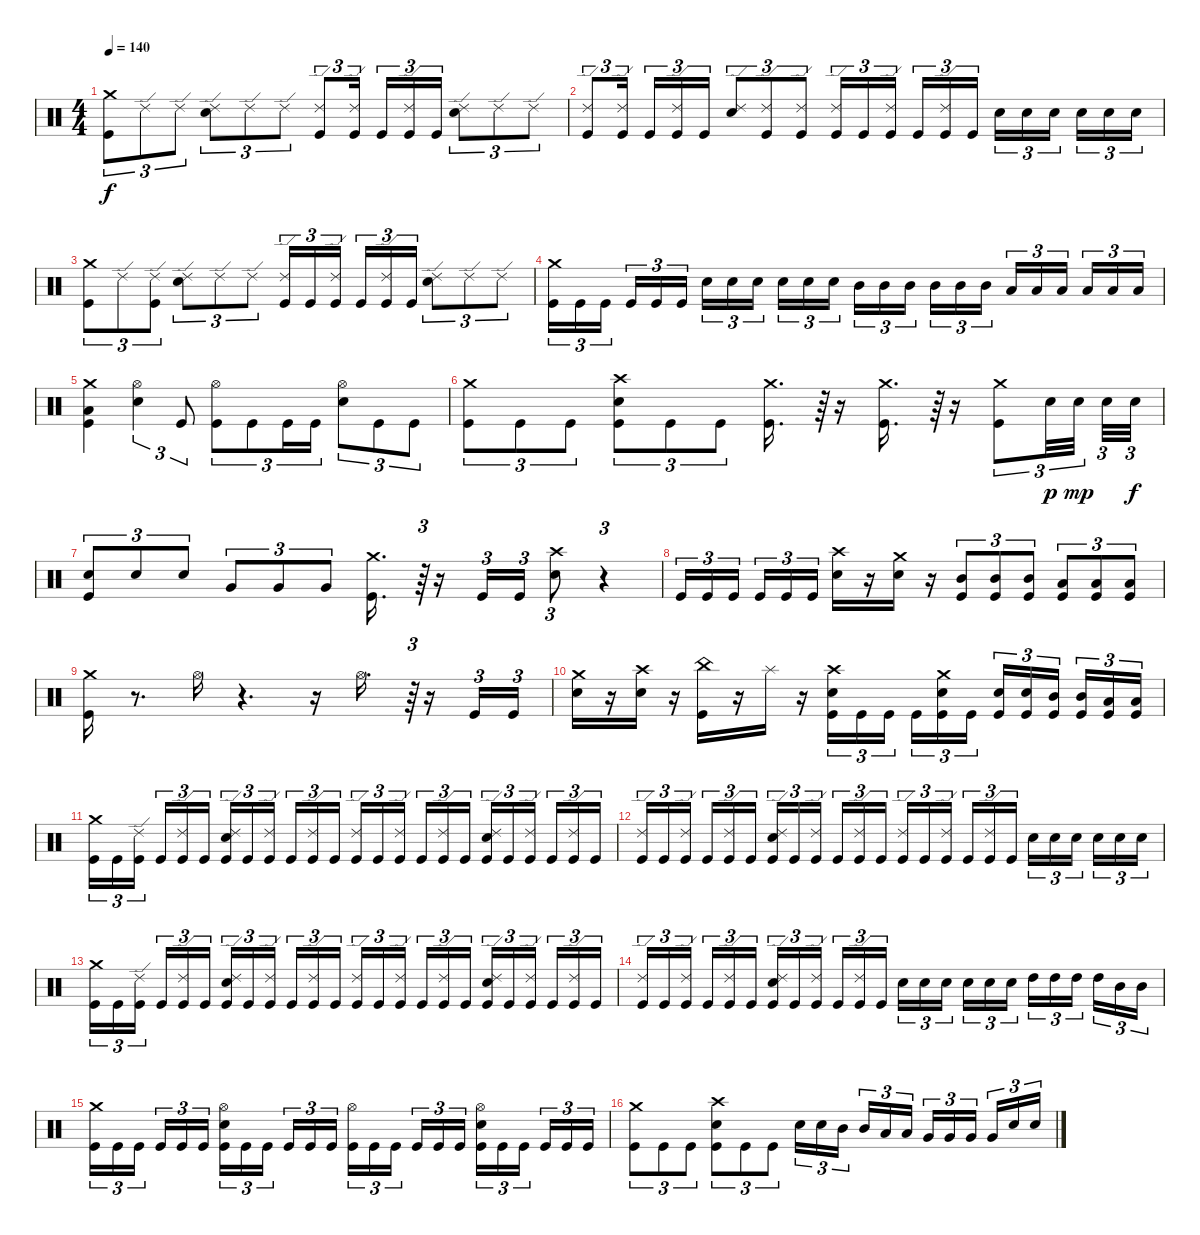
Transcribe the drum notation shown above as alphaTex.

\track "" {instrument percussion}
\staff {score}
\articulation defaults
\ts (4 4)
\tempo 140
\clef neutral
\ks c
("Crash medium (hit)" "Kick (hit)").8{tu (3 2) dy f} "Ride (edge) 2".8{tu (3 2)} "Ride (edge) 2".8{tu (3 2)} ("Snare (hit) 2" "Ride (edge) 2").8{tu (3 2)} "Ride (edge) 2".8{tu (3 2)} "Ride (edge) 2".8{tu (3 2)} ("Ride (edge) 2" "Kick (hit)").8{tu (3 2)} ("Ride (edge) 2" "Kick (hit)").16{tu (3 2) beam splitsecondary} "Kick (hit)".16{tu (3 2)} ("Ride (edge) 2" "Kick (hit)").16{tu (3 2)} "Kick (hit)".16{tu (3 2)} ("Ride (edge) 2" "Snare (hit) 2").8{tu (3 2)} "Ride (edge) 2".8{tu (3 2)} "Ride (edge) 2".8{tu (3 2)} |
("Kick (hit)" "Ride (edge) 2").8{tu (3 2)} ("Kick (hit)" "Ride (edge) 2").16{tu (3 2) beam splitsecondary} "Kick (hit)".16{tu (3 2)} ("Kick (hit)" "Ride (edge) 2").16{tu (3 2)} "Kick (hit)".16{tu (3 2)} ("Snare (hit) 2" "Ride (edge) 2").8{tu (3 2)} ("Kick (hit)" "Ride (edge) 2").8{tu (3 2)} ("Kick (hit)" "Ride (edge) 2").8{tu (3 2)} ("Kick (hit)" "Ride (edge) 2").16{tu (3 2)} "Kick (hit)".16{tu (3 2)} ("Kick (hit)" "Ride (edge) 2").16{tu (3 2) beam splitsecondary} "Kick (hit)".16{tu (3 2)} ("Kick (hit)" "Ride (edge) 2").16{tu (3 2)} "Kick (hit)".16{tu (3 2)} "Snare (hit) 2".16{tu (3 2)} "Snare (hit) 2".16{tu (3 2)} "Snare (hit) 2".16{tu (3 2) beam splitsecondary} "Snare (hit) 2".16{tu (3 2)} "Snare (hit) 2".16{tu (3 2)} "Snare (hit) 2".16{tu (3 2)} |
("Kick (hit)" "Crash medium (hit)").8{tu (3 2)} "Ride (edge) 2".8{tu (3 2)} ("Kick (hit)" "Ride (edge) 2").8{tu (3 2)} ("Ride (edge) 2" "Snare (hit) 2").8{tu (3 2)} "Ride (edge) 2".8{tu (3 2)} "Ride (edge) 2".8{tu (3 2)} ("Kick (hit)" "Ride (edge) 2").16{tu (3 2)} "Kick (hit)".16{tu (3 2)} ("Kick (hit)" "Ride (edge) 2").16{tu (3 2) beam splitsecondary} "Kick (hit)".16{tu (3 2)} ("Kick (hit)" "Ride (edge) 2").16{tu (3 2)} "Kick (hit)".16{tu (3 2)} ("Ride (edge) 2" "Snare (hit) 2").8{tu (3 2)} "Ride (edge) 2".8{tu (3 2)} "Ride (edge) 2".8{tu (3 2)} |
("Kick (hit)" "Crash medium (hit)").16{tu (3 2)} "Kick (hit)".16{tu (3 2)} "Kick (hit)".16{tu (3 2) beam splitsecondary} "Kick (hit)".16{tu (3 2)} "Kick (hit)".16{tu (3 2)} "Kick (hit)".16{tu (3 2)} "Snare (hit) 2".16{tu (3 2)} "Snare (hit) 2".16{tu (3 2)} "Snare (hit) 2".16{tu (3 2) beam splitsecondary} "Snare (hit) 2".16{tu (3 2)} "Snare (hit) 2".16{tu (3 2)} "Snare (hit) 2".16{tu (3 2)} "Mid Tom (hit)".16{tu (3 2)} "Mid Tom (hit)".16{tu (3 2)} "Mid Tom (hit)".16{tu (3 2) beam splitsecondary} "Mid Tom (hit)".16{tu (3 2)} "Mid Tom (hit)".16{tu (3 2)} "Mid Tom (hit)".16{tu (3 2)} "Low Tom (hit)".16{tu (3 2)} "Low Tom (hit)".16{tu (3 2)} "Low Tom (hit)".16{tu (3 2) beam splitsecondary} "Low Tom (hit)".16{tu (3 2)} "Low Tom (hit)".16{tu (3 2)} "Low Tom (hit)".16{tu (3 2)} |
("Low Tom (hit)" "Kick (hit)" "Crash medium (hit)").4 ("Snare (hit) 2" "Hi-Hat (open)").4{tu (3 2)} "Kick (hit)".8{tu (3 2)} ("Kick (hit)" "Hi-Hat (open)").8{tu (3 2)} "Kick (hit)".8{tu (3 2)} "Kick (hit)".16{tu (3 2)} "Kick (hit)".16{tu (3 2)} ("Snare (hit) 2" "Hi-Hat (open)").8{tu (3 2)} "Kick (hit)".8{tu (3 2)} "Kick (hit)".8{tu (3 2)} |
("Kick (hit)" "Crash medium (hit)").8{tu (3 2)} "Kick (hit)".8{tu (3 2)} "Kick (hit)".8{tu (3 2)} ("Snare (hit) 2" "Kick (hit)" "Crash high (hit)").8{tu (3 2)} "Kick (hit)".8{tu (3 2)} "Kick (hit)".8{tu (3 2)} ("Crash medium (hit)" "Kick (hit)").16{d} r.64{tu (3 2)} r.16 ("Crash medium (hit)" "Kick (hit)").16{d} r.64{tu (3 2)} r.16 ("Kick (hit)" "Crash medium (hit)").8{tu (3 2)} "Snare (hit) 2".32{tu (3 2) dy p} "Snare (hit) 2".32{tu (3 2) dy mp beam splitsecondary} "Snare (hit) 2".32{tu (3 2)} "Snare (hit) 2".32{tu (3 2) dy f} |
("Snare (hit) 2" "Kick (hit)").8{tu (3 2)} "Snare (hit) 2".8{tu (3 2)} "Snare (hit) 2".8{tu (3 2)} "Very Low Tom (hit)".8{tu (3 2)} "Very Low Tom (hit)".8{tu (3 2)} "Very Low Tom (hit)".8{tu (3 2)} ("Crash medium (hit)" "Kick (hit)").16{d} r.64{tu (3 2)} r.16 "Kick (hit)".16{tu (3 2)} "Kick (hit)".16{tu (3 2)} ("Crash high (hit)" "Snare (hit) 2").8{tu (3 2)} r.4{tu (3 2)} |
"Kick (hit)".16{tu (3 2)} "Kick (hit)".16{tu (3 2)} "Kick (hit)".16{tu (3 2) beam splitsecondary} "Kick (hit)".16{tu (3 2)} "Kick (hit)".16{tu (3 2)} "Kick (hit)".16{tu (3 2)} ("Snare (hit) 2" "Crash high (hit)").16 r.16 ("Crash medium (hit)" "Snare (hit) 2").16 r.16 ("Kick (hit)" "Mid Tom (hit)").8{tu (3 2)} ("Mid Tom (hit)" "Kick (hit)").8{tu (3 2)} ("Mid Tom (hit)" "Kick (hit)").8{tu (3 2)} ("Kick (hit)" "Low Tom (hit)").8{tu (3 2)} ("Kick (hit)" "Low Tom (hit)").8{tu (3 2)} ("Low Tom (hit)" "Kick (hit)").8{tu (3 2)} |
("Crash medium (hit)" "Kick (hit)").16 r.8{d} "Hi-Hat (open)".16 r.4{d} r.16 "Hi-Hat (open)".16{d} r.64{tu (3 2)} r.16 "Kick (hit)".16{tu (3 2)} "Kick (hit)".16{tu (3 2)} |
("Crash medium (hit)" "Snare (hit) 2").16 r.16 ("Snare (hit) 2" "Crash high (hit)").16 r.16 ("Kick (hit)" "China (hit)").16 r.16 "Splash (hit)".16 r.16 ("Crash high (hit)" "Snare (hit) 2" "Kick (hit)").16{tu (3 2)} "Kick (hit)".16{tu (3 2)} "Kick (hit)".16{tu (3 2) beam splitsecondary} "Kick (hit)".16{tu (3 2)} ("Kick (hit)" "Snare (hit) 2" "Crash medium (hit)").16{tu (3 2)} "Kick (hit)".16{tu (3 2)} ("Snare (hit) 2" "Kick (hit)").16{tu (3 2)} ("Kick (hit)" "Snare (hit) 2").16{tu (3 2)} ("Mid Tom (hit)" "Kick (hit)").16{tu (3 2) beam splitsecondary} ("Mid Tom (hit)" "Kick (hit)").16{tu (3 2)} ("Kick (hit)" "Low Tom (hit)").16{tu (3 2)} ("Kick (hit)" "Low Tom (hit)").16{tu (3 2)} |
("Crash medium (hit)" "Kick (hit)").16{tu (3 2)} "Kick (hit)".16{tu (3 2)} ("Ride (edge) 2" "Kick (hit)").16{tu (3 2) beam splitsecondary} "Kick (hit)".16{tu (3 2)} ("Ride (edge) 2" "Kick (hit)").16{tu (3 2)} "Kick (hit)".16{tu (3 2)} ("Snare (hit) 2" "Ride (edge) 2" "Kick (hit)").16{tu (3 2)} "Kick (hit)".16{tu (3 2)} ("Ride (edge) 2" "Kick (hit)").16{tu (3 2) beam splitsecondary} "Kick (hit)".16{tu (3 2)} ("Ride (edge) 2" "Kick (hit)").16{tu (3 2)} "Kick (hit)".16{tu (3 2)} ("Ride (edge) 2" "Kick (hit)").16{tu (3 2)} "Kick (hit)".16{tu (3 2)} ("Ride (edge) 2" "Kick (hit)").16{tu (3 2) beam splitsecondary} "Kick (hit)".16{tu (3 2)} ("Ride (edge) 2" "Kick (hit)").16{tu (3 2)} "Kick (hit)".16{tu (3 2)} ("Ride (edge) 2" "Snare (hit) 2" "Kick (hit)").16{tu (3 2)} "Kick (hit)".16{tu (3 2)} ("Ride (edge) 2" "Kick (hit)").16{tu (3 2) beam splitsecondary} "Kick (hit)".16{tu (3 2)} ("Ride (edge) 2" "Kick (hit)").16{tu (3 2)} "Kick (hit)".16{tu (3 2)} |
("Kick (hit)" "Ride (edge) 2").16{tu (3 2)} "Kick (hit)".16{tu (3 2)} ("Kick (hit)" "Ride (edge) 2").16{tu (3 2) beam splitsecondary} "Kick (hit)".16{tu (3 2)} ("Kick (hit)" "Ride (edge) 2").16{tu (3 2)} "Kick (hit)".16{tu (3 2)} ("Kick (hit)" "Snare (hit) 2" "Ride (edge) 2").16{tu (3 2)} "Kick (hit)".16{tu (3 2)} ("Kick (hit)" "Ride (edge) 2").16{tu (3 2) beam splitsecondary} "Kick (hit)".16{tu (3 2)} ("Kick (hit)" "Ride (edge) 2").16{tu (3 2)} "Kick (hit)".16{tu (3 2)} ("Kick (hit)" "Ride (edge) 2").16{tu (3 2)} "Kick (hit)".16{tu (3 2)} ("Kick (hit)" "Ride (edge) 2").16{tu (3 2) beam splitsecondary} "Kick (hit)".16{tu (3 2)} ("Kick (hit)" "Ride (edge) 2").16{tu (3 2)} "Kick (hit)".16{tu (3 2)} "Snare (hit) 2".16{tu (3 2)} "Snare (hit) 2".16{tu (3 2)} "Snare (hit) 2".16{tu (3 2) beam splitsecondary} "Snare (hit) 2".16{tu (3 2)} "Snare (hit) 2".16{tu (3 2)} "Snare (hit) 2".16{tu (3 2)} |
("Kick (hit)" "Crash medium (hit)").16{tu (3 2)} "Kick (hit)".16{tu (3 2)} ("Kick (hit)" "Ride (edge) 2").16{tu (3 2) beam splitsecondary} "Kick (hit)".16{tu (3 2)} ("Kick (hit)" "Ride (edge) 2").16{tu (3 2)} "Kick (hit)".16{tu (3 2)} ("Kick (hit)" "Snare (hit) 2" "Ride (edge) 2").16{tu (3 2)} "Kick (hit)".16{tu (3 2)} ("Kick (hit)" "Ride (edge) 2").16{tu (3 2) beam splitsecondary} "Kick (hit)".16{tu (3 2)} ("Kick (hit)" "Ride (edge) 2").16{tu (3 2)} "Kick (hit)".16{tu (3 2)} ("Kick (hit)" "Ride (edge) 2").16{tu (3 2)} "Kick (hit)".16{tu (3 2)} ("Kick (hit)" "Ride (edge) 2").16{tu (3 2) beam splitsecondary} "Kick (hit)".16{tu (3 2)} ("Kick (hit)" "Ride (edge) 2").16{tu (3 2)} "Kick (hit)".16{tu (3 2)} ("Kick (hit)" "Ride (edge) 2" "Snare (hit) 2").16{tu (3 2)} "Kick (hit)".16{tu (3 2)} ("Kick (hit)" "Ride (edge) 2").16{tu (3 2) beam splitsecondary} "Kick (hit)".16{tu (3 2)} ("Kick (hit)" "Ride (edge) 2").16{tu (3 2)} "Kick (hit)".16{tu (3 2)} |
("Kick (hit)" "Ride (edge) 2").16{tu (3 2)} "Kick (hit)".16{tu (3 2)} ("Kick (hit)" "Ride (edge) 2").16{tu (3 2) beam splitsecondary} "Kick (hit)".16{tu (3 2)} ("Kick (hit)" "Ride (edge) 2").16{tu (3 2)} "Kick (hit)".16{tu (3 2)} ("Kick (hit)" "Snare (hit) 2" "Ride (edge) 2").16{tu (3 2)} "Kick (hit)".16{tu (3 2)} ("Kick (hit)" "Ride (edge) 2").16{tu (3 2) beam splitsecondary} "Kick (hit)".16{tu (3 2)} ("Kick (hit)" "Ride (edge) 2").16{tu (3 2)} "Kick (hit)".16{tu (3 2)} "Snare (hit) 2".16{tu (3 2)} "Snare (hit) 2".16{tu (3 2)} "Snare (hit) 2".16{tu (3 2) beam splitsecondary} "Snare (hit) 2".16{tu (3 2)} "Snare (hit) 2".16{tu (3 2)} "Snare (hit) 2".16{tu (3 2)} "High Tom (hit)".16{tu (3 2)} "High Tom (hit)".16{tu (3 2)} "High Tom (hit)".16{tu (3 2) beam splitsecondary} "High Tom (hit)".16{tu (3 2)} "Mid Tom (hit)".16{tu (3 2)} "Mid Tom (hit)".16{tu (3 2)} |
("Kick (hit)" "Crash medium (hit)").16{tu (3 2)} "Kick (hit)".16{tu (3 2)} "Kick (hit)".16{tu (3 2) beam splitsecondary} "Kick (hit)".16{tu (3 2)} "Kick (hit)".16{tu (3 2)} "Kick (hit)".16{tu (3 2)} ("Kick (hit)" "Snare (hit) 2" "Hi-Hat (open)").16{tu (3 2)} "Kick (hit)".16{tu (3 2)} "Kick (hit)".16{tu (3 2) beam splitsecondary} "Kick (hit)".16{tu (3 2)} "Kick (hit)".16{tu (3 2)} "Kick (hit)".16{tu (3 2)} ("Kick (hit)" "Hi-Hat (open)").16{tu (3 2)} "Kick (hit)".16{tu (3 2)} "Kick (hit)".16{tu (3 2) beam splitsecondary} "Kick (hit)".16{tu (3 2)} "Kick (hit)".16{tu (3 2)} "Kick (hit)".16{tu (3 2)} ("Kick (hit)" "Snare (hit) 2" "Hi-Hat (open)").16{tu (3 2)} "Kick (hit)".16{tu (3 2)} "Kick (hit)".16{tu (3 2) beam splitsecondary} "Kick (hit)".16{tu (3 2)} "Kick (hit)".16{tu (3 2)} "Kick (hit)".16{tu (3 2)} |
("Kick (hit)" "Crash medium (hit)").8{tu (3 2)} "Kick (hit)".8{tu (3 2)} "Kick (hit)".8{tu (3 2)} ("Snare (hit) 2" "Kick (hit)" "Crash high (hit)").8{tu (3 2)} "Kick (hit)".8{tu (3 2)} "Kick (hit)".8{tu (3 2)} "Snare (hit) 2".16{tu (3 2)} "Snare (hit) 2".16{tu (3 2)} "Mid Tom (hit)".16{tu (3 2) beam splitsecondary} "Mid Tom (hit)".16{tu (3 2)} "Low Tom (hit)".16{tu (3 2)} "Low Tom (hit)".16{tu (3 2)} "Very Low Tom (hit)".16{tu (3 2)} "Very Low Tom (hit)".16{tu (3 2)} "Very Low Tom (hit)".16{tu (3 2) beam splitsecondary} "Very Low Tom (hit)".16{tu (3 2)} "Snare (hit) 2".16{tu (3 2)} "Snare (hit) 2".16{tu (3 2)}
